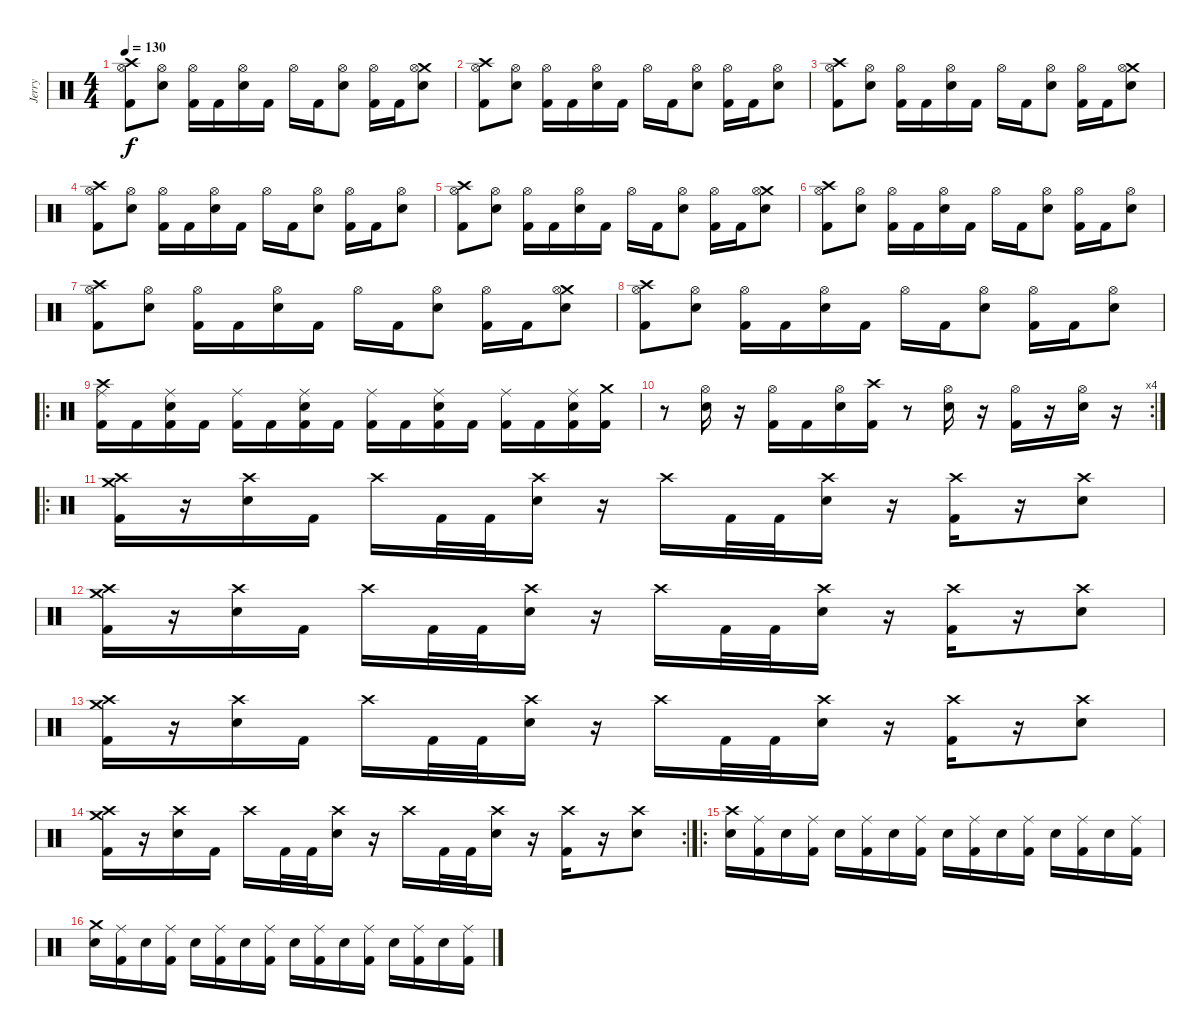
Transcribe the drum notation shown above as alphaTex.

\track ("Jerry" "Jerry") {instrument percussion}
\staff {score}
\articulation defaults
\ts (4 4)
\tempo 130
\clef neutral
\ks c
("Crash high (hit)" "Hi-Hat (open)" "Kick (hit) 2").8{dy f} ("Hi-Hat (open)" "Electric Snare (hit)").8 ("Hi-Hat (open)" "Kick (hit) 2").16 "Kick (hit) 2".16 ("Hi-Hat (open)" "Electric Snare (hit)").16 "Kick (hit) 2".16 "Hi-Hat (open)".16 "Kick (hit) 2".16 ("Hi-Hat (open)" "Electric Snare (hit)").8 ("Hi-Hat (open)" "Kick (hit) 2").16 "Kick (hit) 2".16 ("Crash medium (hit)" "Hi-Hat (open)" "Electric Snare (hit)").8 |
("Crash high (hit)" "Hi-Hat (open)" "Kick (hit) 2").8 ("Hi-Hat (open)" "Electric Snare (hit)").8 ("Hi-Hat (open)" "Kick (hit) 2").16 "Kick (hit) 2".16 ("Hi-Hat (open)" "Electric Snare (hit)").16 "Kick (hit) 2".16 "Hi-Hat (open)".16 "Kick (hit) 2".16 ("Hi-Hat (open)" "Electric Snare (hit)").8 ("Hi-Hat (open)" "Kick (hit) 2").16 "Kick (hit) 2".16 ("Hi-Hat (open)" "Electric Snare (hit)").8 |
("Crash high (hit)" "Hi-Hat (open)" "Kick (hit) 2").8 ("Hi-Hat (open)" "Electric Snare (hit)").8 ("Hi-Hat (open)" "Kick (hit) 2").16 "Kick (hit) 2".16 ("Hi-Hat (open)" "Electric Snare (hit)").16 "Kick (hit) 2".16 "Hi-Hat (open)".16 "Kick (hit) 2".16 ("Hi-Hat (open)" "Electric Snare (hit)").8 ("Hi-Hat (open)" "Kick (hit) 2").16 "Kick (hit) 2".16 ("Crash medium (hit)" "Hi-Hat (open)" "Electric Snare (hit)").8 |
("Crash high (hit)" "Hi-Hat (open)" "Kick (hit) 2").8 ("Hi-Hat (open)" "Electric Snare (hit)").8 ("Hi-Hat (open)" "Kick (hit) 2").16 "Kick (hit) 2".16 ("Hi-Hat (open)" "Electric Snare (hit)").16 "Kick (hit) 2".16 "Hi-Hat (open)".16 "Kick (hit) 2".16 ("Hi-Hat (open)" "Electric Snare (hit)").8 ("Hi-Hat (open)" "Kick (hit) 2").16 "Kick (hit) 2".16 ("Hi-Hat (open)" "Electric Snare (hit)").8 |
("Crash high (hit)" "Hi-Hat (open)" "Kick (hit) 2").8 ("Hi-Hat (open)" "Electric Snare (hit)").8 ("Hi-Hat (open)" "Kick (hit) 2").16 "Kick (hit) 2".16 ("Hi-Hat (open)" "Electric Snare (hit)").16 "Kick (hit) 2".16 "Hi-Hat (open)".16 "Kick (hit) 2".16 ("Hi-Hat (open)" "Electric Snare (hit)").8 ("Hi-Hat (open)" "Kick (hit) 2").16 "Kick (hit) 2".16 ("Crash medium (hit)" "Hi-Hat (open)" "Electric Snare (hit)").8 |
("Crash high (hit)" "Hi-Hat (open)" "Kick (hit) 2").8 ("Hi-Hat (open)" "Electric Snare (hit)").8 ("Hi-Hat (open)" "Kick (hit) 2").16 "Kick (hit) 2".16 ("Hi-Hat (open)" "Electric Snare (hit)").16 "Kick (hit) 2".16 "Hi-Hat (open)".16 "Kick (hit) 2".16 ("Hi-Hat (open)" "Electric Snare (hit)").8 ("Hi-Hat (open)" "Kick (hit) 2").16 "Kick (hit) 2".16 ("Hi-Hat (open)" "Electric Snare (hit)").8 |
("Crash high (hit)" "Hi-Hat (open)" "Kick (hit) 2").8 ("Hi-Hat (open)" "Electric Snare (hit)").8 ("Hi-Hat (open)" "Kick (hit) 2").16 "Kick (hit) 2".16 ("Hi-Hat (open)" "Electric Snare (hit)").16 "Kick (hit) 2".16 "Hi-Hat (open)".16 "Kick (hit) 2".16 ("Hi-Hat (open)" "Electric Snare (hit)").8 ("Hi-Hat (open)" "Kick (hit) 2").16 "Kick (hit) 2".16 ("Crash medium (hit)" "Hi-Hat (open)" "Electric Snare (hit)").8 |
("Crash high (hit)" "Hi-Hat (open)" "Kick (hit) 2").8 ("Hi-Hat (open)" "Electric Snare (hit)").8 ("Hi-Hat (open)" "Kick (hit) 2").16 "Kick (hit) 2".16 ("Hi-Hat (open)" "Electric Snare (hit)").16 "Kick (hit) 2".16 "Hi-Hat (open)".16 "Kick (hit) 2".16 ("Hi-Hat (open)" "Electric Snare (hit)").8 ("Hi-Hat (open)" "Kick (hit) 2").16 "Kick (hit) 2".16 ("Hi-Hat (open)" "Electric Snare (hit)").8 |
\ro
("Crash high (hit)" "Ride (middle)" "Kick (hit) 2").16 "Kick (hit) 2".16 ("Ride (middle)" "Electric Snare (hit)" "Kick (hit) 2").16 "Kick (hit) 2".16 ("Ride (middle)" "Kick (hit) 2").16 "Kick (hit) 2".16 ("Ride (middle)" "Electric Snare (hit)" "Kick (hit) 2").16 "Kick (hit) 2".16 ("Ride (middle)" "Kick (hit) 2").16 "Kick (hit) 2".16 ("Ride (middle)" "Electric Snare (hit)" "Kick (hit) 2").16 "Kick (hit) 2".16 ("Ride (middle)" "Kick (hit) 2").16 "Kick (hit) 2".16 ("Ride (middle)" "Electric Snare (hit)" "Kick (hit) 2").16 ("Crash medium (hit)" "Kick (hit) 2").16 |
\rc 4
r.8 ("Hi-Hat (open)" "Electric Snare (hit)").16 r.16 ("Hi-Hat (open)" "Kick (hit) 2").16 "Kick (hit) 2".16 ("Hi-Hat (open)" "Electric Snare (hit)").16 ("Crash high (hit)" "Kick (hit) 2").16 r.8 ("Hi-Hat (open)" "Electric Snare (hit)").16 r.16 ("Hi-Hat (open)" "Kick (hit) 2").16 r.16 ("Hi-Hat (open)" "Electric Snare (hit)").16 r.16 |
\ro
("Crash medium (hit)" "Crash high (hit)" "Kick (hit) 2").16 r.16 ("Crash high (hit)" "Electric Snare (hit)").16 "Kick (hit) 2".16 "Crash high (hit)".16 "Kick (hit) 2".32 "Kick (hit) 2".32 ("Crash high (hit)" "Electric Snare (hit)").16 r.16 "Crash high (hit)".16 "Kick (hit) 2".32 "Kick (hit) 2".32 ("Crash high (hit)" "Electric Snare (hit)").16 r.16 ("Crash high (hit)" "Kick (hit) 2").16 r.16 ("Crash high (hit)" "Electric Snare (hit)").8 |
("Crash medium (hit)" "Crash high (hit)" "Kick (hit) 2").16 r.16 ("Crash high (hit)" "Electric Snare (hit)").16 "Kick (hit) 2".16 "Crash high (hit)".16 "Kick (hit) 2".32 "Kick (hit) 2".32 ("Crash high (hit)" "Electric Snare (hit)").16 r.16 "Crash high (hit)".16 "Kick (hit) 2".32 "Kick (hit) 2".32 ("Crash high (hit)" "Electric Snare (hit)").16 r.16 ("Crash high (hit)" "Kick (hit) 2").16 r.16 ("Crash high (hit)" "Electric Snare (hit)").8 |
("Crash medium (hit)" "Crash high (hit)" "Kick (hit) 2").16 r.16 ("Crash high (hit)" "Electric Snare (hit)").16 "Kick (hit) 2".16 "Crash high (hit)".16 "Kick (hit) 2".32 "Kick (hit) 2".32 ("Crash high (hit)" "Electric Snare (hit)").16 r.16 "Crash high (hit)".16 "Kick (hit) 2".32 "Kick (hit) 2".32 ("Crash high (hit)" "Electric Snare (hit)").16 r.16 ("Crash high (hit)" "Kick (hit) 2").16 r.16 ("Crash high (hit)" "Electric Snare (hit)").8 |
\rc 2
("Crash medium (hit)" "Crash high (hit)" "Kick (hit) 2").16 r.16 ("Crash high (hit)" "Electric Snare (hit)").16 "Kick (hit) 2".16 "Crash high (hit)".16 "Kick (hit) 2".32 "Kick (hit) 2".32 ("Crash high (hit)" "Electric Snare (hit)").16 r.16 "Crash high (hit)".16 "Kick (hit) 2".32 "Kick (hit) 2".32 ("Crash high (hit)" "Electric Snare (hit)").16 r.16 ("Crash high (hit)" "Kick (hit) 2").16 r.16 ("Crash high (hit)" "Electric Snare (hit)").8 |
\ro
("Crash high (hit)" "Electric Snare (hit)").16 ("Ride (middle)" "Kick (hit) 2").16 "Electric Snare (hit)".16 ("Ride (middle)" "Kick (hit) 2").16 "Electric Snare (hit)".16 ("Ride (middle)" "Kick (hit) 2").16 "Electric Snare (hit)".16 ("Ride (middle)" "Kick (hit) 2").16 "Electric Snare (hit)".16 ("Ride (middle)" "Kick (hit) 2").16 "Electric Snare (hit)".16 ("Ride (middle)" "Kick (hit) 2").16 "Electric Snare (hit)".16 ("Ride (middle)" "Kick (hit) 2").16 "Electric Snare (hit)".16 ("Ride (middle)" "Kick (hit) 2").16 |
("Crash medium (hit)" "Electric Snare (hit)").16 ("Ride (middle)" "Kick (hit) 2").16 "Electric Snare (hit)".16 ("Ride (middle)" "Kick (hit) 2").16 "Electric Snare (hit)".16 ("Ride (middle)" "Kick (hit) 2").16 "Electric Snare (hit)".16 ("Ride (middle)" "Kick (hit) 2").16 "Electric Snare (hit)".16 ("Ride (middle)" "Kick (hit) 2").16 "Electric Snare (hit)".16 ("Ride (middle)" "Kick (hit) 2").16 "Electric Snare (hit)".16 ("Ride (middle)" "Kick (hit) 2").16 "Electric Snare (hit)".16 ("Ride (middle)" "Kick (hit) 2").16
